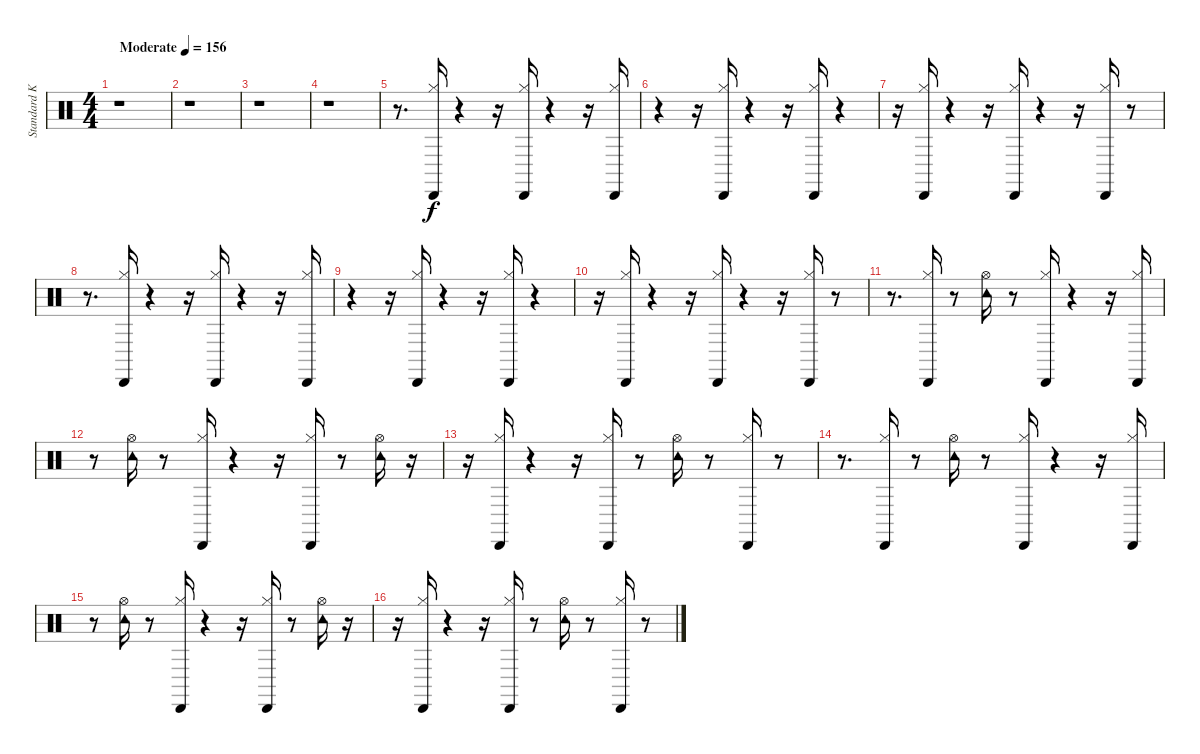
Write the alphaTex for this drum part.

\track ("Standard Kit" "Standard K") {instrument percussion}
\staff {score}
\articulation defaults
\ts (4 4)
\tempo (156 "Moderate")
\clef neutral
\ks c
r.1{dy f} |
r.1 |
r.1 |
r.1 |
r.8{d} ("Hi-Hat (closed)" "Cabasa (hit)").16 r.4 r.16 ("Hi-Hat (closed)" "Cabasa (hit)").16 r.4 r.16 ("Hi-Hat (closed)" "Cabasa (hit)").16 |
r.4 r.16 ("Hi-Hat (closed)" "Cabasa (hit)").16 r.4 r.16 ("Hi-Hat (closed)" "Cabasa (hit)").16 r.4 |
r.16 ("Hi-Hat (closed)" "Cabasa (hit)").16 r.4 r.16 ("Hi-Hat (closed)" "Cabasa (hit)").16 r.4 r.16 ("Hi-Hat (closed)" "Cabasa (hit)").16 r.8 |
r.8{d} ("Hi-Hat (closed)" "Cabasa (hit)").16 r.4 r.16 ("Hi-Hat (closed)" "Cabasa (hit)").16 r.4 r.16 ("Hi-Hat (closed)" "Cabasa (hit)").16 |
r.4 r.16 ("Hi-Hat (closed)" "Cabasa (hit)").16 r.4 r.16 ("Hi-Hat (closed)" "Cabasa (hit)").16 r.4 |
r.16 ("Hi-Hat (closed)" "Cabasa (hit)").16 r.4 r.16 ("Hi-Hat (closed)" "Cabasa (hit)").16 r.4 r.16 ("Hi-Hat (closed)" "Cabasa (hit)").16 r.8 |
r.8{d} ("Hi-Hat (closed)" "Cabasa (hit)").16 r.8 ("Hi-Hat (open)" "Tambourine (hit)").16 r.8 ("Hi-Hat (closed)" "Cabasa (hit)").16 r.4 r.16 ("Hi-Hat (closed)" "Cabasa (hit)").16 |
r.8 ("Hi-Hat (open)" "Tambourine (hit)").16 r.8 ("Hi-Hat (closed)" "Cabasa (hit)").16 r.4 r.16 ("Hi-Hat (closed)" "Cabasa (hit)").16 r.8 ("Hi-Hat (open)" "Tambourine (hit)").16 r.16 |
r.16 ("Hi-Hat (closed)" "Cabasa (hit)").16 r.4 r.16 ("Hi-Hat (closed)" "Cabasa (hit)").16 r.8 ("Hi-Hat (open)" "Tambourine (hit)").16 r.8 ("Hi-Hat (closed)" "Cabasa (hit)").16 r.8 |
r.8{d} ("Hi-Hat (closed)" "Cabasa (hit)").16 r.8 ("Hi-Hat (open)" "Tambourine (hit)").16 r.8 ("Hi-Hat (closed)" "Cabasa (hit)").16 r.4 r.16 ("Hi-Hat (closed)" "Cabasa (hit)").16 |
r.8 ("Hi-Hat (open)" "Tambourine (hit)").16 r.8 ("Hi-Hat (closed)" "Cabasa (hit)").16 r.4 r.16 ("Hi-Hat (closed)" "Cabasa (hit)").16 r.8 ("Hi-Hat (open)" "Tambourine (hit)").16 r.16 |
r.16 ("Hi-Hat (closed)" "Cabasa (hit)").16 r.4 r.16 ("Hi-Hat (closed)" "Cabasa (hit)").16 r.8 ("Hi-Hat (open)" "Tambourine (hit)").16 r.8 ("Hi-Hat (closed)" "Cabasa (hit)").16 r.8
